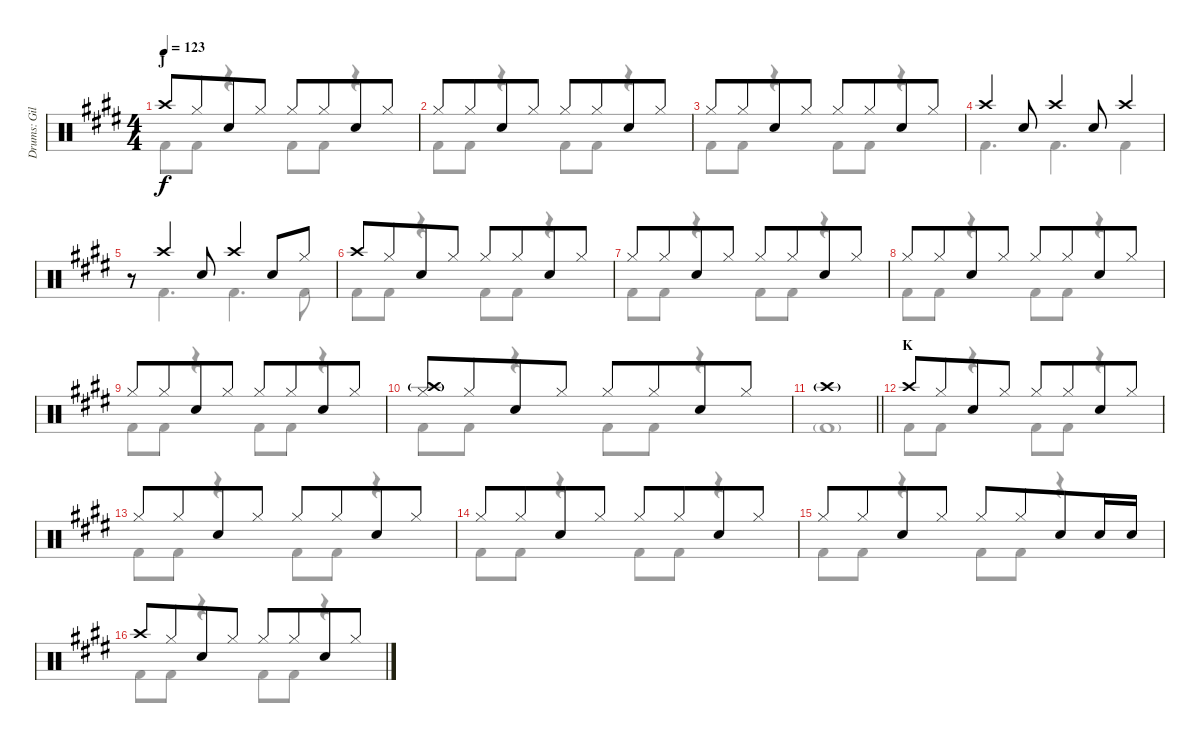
\track ("Drums: Gil" "Drums: Gil") {instrument percussion}
\staff {score}
\articulation defaults
\voice
\ts (4 4)
\section ("" "J")
\tempo 123
\clef neutral
\ks e "Crash high (hit)".8{dy f} "Hi-Hat (closed)".8{beam merge} "Snare (hit) 2".8 "Hi-Hat (closed)".8 "Hi-Hat (closed)".8 "Hi-Hat (closed)".8{beam merge} "Snare (hit) 2".8 "Hi-Hat (closed)".8
|
"Hi-Hat (closed)".8 "Hi-Hat (closed)".8{beam merge} "Snare (hit) 2".8 "Hi-Hat (closed)".8 "Hi-Hat (closed)".8 "Hi-Hat (closed)".8{beam merge} "Snare (hit) 2".8 "Hi-Hat (closed)".8 |
"Hi-Hat (closed)".8 "Hi-Hat (closed)".8{beam merge} "Snare (hit) 2".8 "Hi-Hat (closed)".8 "Hi-Hat (closed)".8 "Hi-Hat (closed)".8{beam merge} "Snare (hit) 2".8 "Hi-Hat (closed)".8 |
"Crash high (hit)".4 "Snare (hit) 2".8 "Crash high (hit)".4 "Snare (hit) 2".8 "Crash high (hit)".4 |
r.8 "Crash high (hit)".4 "Snare (hit) 2".8 "Crash high (hit)".4 "Snare (hit) 2".8 "Hi-Hat (closed)".8 |
"Crash high (hit)".8 "Hi-Hat (closed)".8{beam merge} "Snare (hit) 2".8 "Hi-Hat (closed)".8 "Hi-Hat (closed)".8 "Hi-Hat (closed)".8{beam merge} "Snare (hit) 2".8 "Hi-Hat (closed)".8 |
"Hi-Hat (closed)".8 "Hi-Hat (closed)".8{beam merge} "Snare (hit) 2".8 "Hi-Hat (closed)".8 "Hi-Hat (closed)".8 "Hi-Hat (closed)".8{beam merge} "Snare (hit) 2".8 "Hi-Hat (closed)".8 |
"Hi-Hat (closed)".8 "Hi-Hat (closed)".8{beam merge} "Snare (hit) 2".8 "Hi-Hat (closed)".8 "Hi-Hat (closed)".8 "Hi-Hat (closed)".8{beam merge} "Snare (hit) 2".8 "Hi-Hat (closed)".8 |
"Hi-Hat (closed)".8 "Hi-Hat (closed)".8{beam merge} "Snare (hit) 2".8 "Hi-Hat (closed)".8 "Hi-Hat (closed)".8 "Hi-Hat (closed)".8{beam merge} "Snare (hit) 2".8 "Hi-Hat (closed)".8 |
("Crash high (hit)"{g} "Hi-Hat (closed)").8 "Hi-Hat (closed)".8{beam merge} "Snare (hit) 2".8 "Hi-Hat (closed)".8 "Hi-Hat (closed)".8 "Hi-Hat (closed)".8{beam merge} "Snare (hit) 2".8 "Hi-Hat (closed)".8 |
\barLineRight lightlight "Crash high (hit)"{g}.1
|
\section ("" "K")
"Crash high (hit)".8 "Hi-Hat (closed)".8{beam merge} "Snare (hit) 2".8 "Hi-Hat (closed)".8 "Hi-Hat (closed)".8 "Hi-Hat (closed)".8{beam merge} "Snare (hit) 2".8 "Hi-Hat (closed)".8 |
"Hi-Hat (closed)".8 "Hi-Hat (closed)".8{beam merge} "Snare (hit) 2".8 "Hi-Hat (closed)".8 "Hi-Hat (closed)".8 "Hi-Hat (closed)".8{beam merge} "Snare (hit) 2".8 "Hi-Hat (closed)".8 |
"Hi-Hat (closed)".8 "Hi-Hat (closed)".8{beam merge} "Snare (hit) 2".8 "Hi-Hat (closed)".8 "Hi-Hat (closed)".8 "Hi-Hat (closed)".8{beam merge} "Snare (hit) 2".8 "Hi-Hat (closed)".8 |
"Hi-Hat (closed)".8 "Hi-Hat (closed)".8{beam merge} "Snare (hit) 2".8 "Hi-Hat (closed)".8 "Hi-Hat (closed)".8 "Hi-Hat (closed)".8{beam merge} "Snare (hit) 2".8 "Snare (hit) 2".16 "Snare (hit) 2".16 |
"Crash high (hit)".8 "Hi-Hat (closed)".8{beam merge} "Snare (hit) 2".8 "Hi-Hat (closed)".8 "Hi-Hat (closed)".8 "Hi-Hat (closed)".8{beam merge} "Snare (hit) 2".8 "Hi-Hat (closed)".8
\voice
\clef neutral
\ottava regular
\simile none
\ks e "Kick (hit) 2".8{dy f} "Kick (hit) 2".8
r.4 "Kick (hit) 2".8 "Kick (hit) 2".8 r.4 |
"Kick (hit) 2".8 "Kick (hit) 2".8 r.4 "Kick (hit) 2".8 "Kick (hit) 2".8 r.4 |
"Kick (hit) 2".8 "Kick (hit) 2".8 r.4 "Kick (hit) 2".8 "Kick (hit) 2".8 r.4 |
"Kick (hit) 2".4{d} "Kick (hit) 2".4{d} "Kick (hit) 2".4 |
r.8 "Kick (hit) 2".4{d} "Kick (hit) 2".4{d} "Kick (hit) 2".8 |
"Kick (hit) 2".8 "Kick (hit) 2".8 r.4 "Kick (hit) 2".8 "Kick (hit) 2".8 r.4 |
"Kick (hit) 2".8 "Kick (hit) 2".8 r.4 "Kick (hit) 2".8 "Kick (hit) 2".8 r.4 |
"Kick (hit) 2".8 "Kick (hit) 2".8 r.4 "Kick (hit) 2".8 "Kick (hit) 2".8 r.4 |
"Kick (hit) 2".8 "Kick (hit) 2".8 r.4 "Kick (hit) 2".8 "Kick (hit) 2".8 r.4 |
"Kick (hit) 2".8 "Kick (hit) 2".8 r.4 "Kick (hit) 2".8 "Kick (hit) 2".8 r.4 |
\barLineRight lightlight "Kick (hit) 2"{g}.1
|
"Kick (hit) 2".8 "Kick (hit) 2".8 r.4 "Kick (hit) 2".8 "Kick (hit) 2".8 r.4 |
"Kick (hit) 2".8 "Kick (hit) 2".8 r.4 "Kick (hit) 2".8 "Kick (hit) 2".8 r.4 |
"Kick (hit) 2".8 "Kick (hit) 2".8 r.4 "Kick (hit) 2".8 "Kick (hit) 2".8 r.4 |
"Kick (hit) 2".8 "Kick (hit) 2".8 r.4 "Kick (hit) 2".8 "Kick (hit) 2".8 r.4 |
"Kick (hit) 2".8 "Kick (hit) 2".8 r.4 "Kick (hit) 2".8 "Kick (hit) 2".8 r.4
